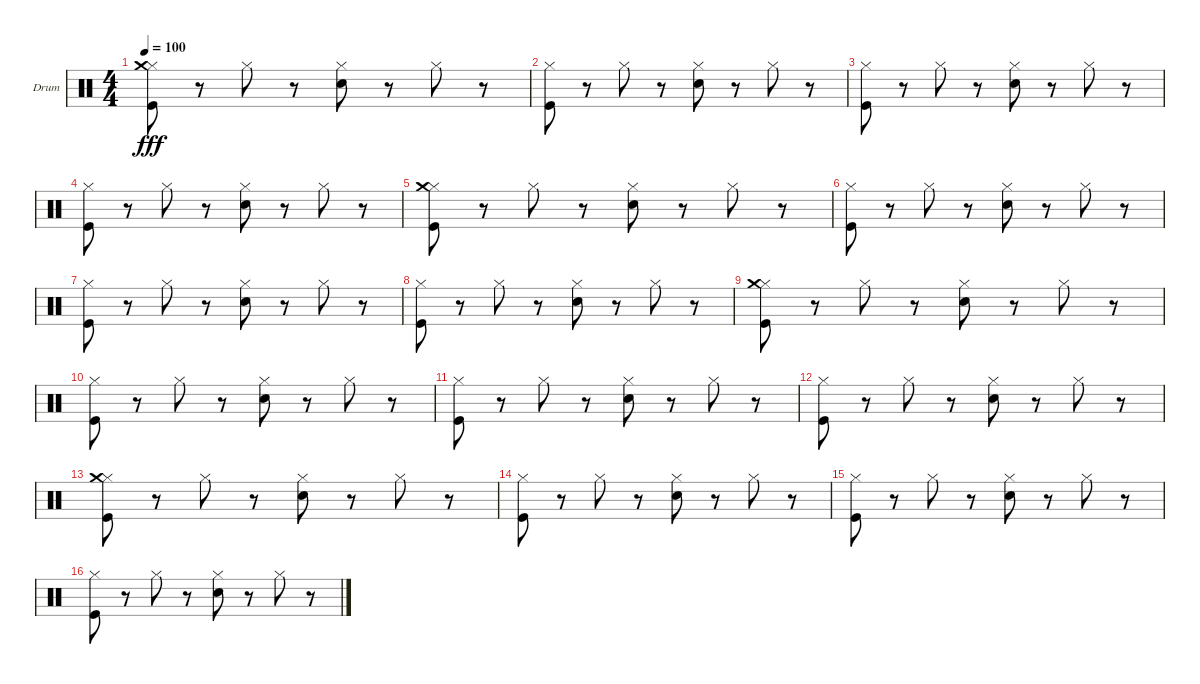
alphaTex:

\defaultSystemsLayout 4
\bracketExtendMode groupsimilarinstruments
\firstSystemTrackNameOrientation horizontal
\otherSystemsTrackNameOrientation horizontal
\track ("Drum" "Drum") {instrument percussion}
\staff {score}
\articulation defaults
\ts (4 4)
\tempo 100
\clef neutral
\scale
0.333333
\ks c
("Hi-Hat (closed)" "Crash medium (hit)" "Kick (hit)").8{dy fff} r.8 "Hi-Hat (closed)".8 r.8 ("Hi-Hat (closed)" "Snare (hit) 2").8 r.8 "Hi-Hat (closed)".8 r.8 |
\scale
0.333333 ("Hi-Hat (closed)" "Kick (hit)").8 r.8 "Hi-Hat (closed)".8 r.8 ("Hi-Hat (closed)" "Snare (hit) 2").8 r.8 "Hi-Hat (closed)".8 r.8 |
\scale
0.333333 ("Hi-Hat (closed)" "Kick (hit)").8 r.8 "Hi-Hat (closed)".8 r.8 ("Hi-Hat (closed)" "Snare (hit) 2").8 r.8 "Hi-Hat (closed)".8 r.8 |
\scale
0.333333 ("Hi-Hat (closed)" "Kick (hit)").8 r.8 "Hi-Hat (closed)".8 r.8 ("Hi-Hat (closed)" "Snare (hit) 2").8 r.8 "Hi-Hat (closed)".8 r.8 |
\scale
0.333333 ("Hi-Hat (closed)" "Crash medium (hit)" "Kick (hit)").8 r.8 "Hi-Hat (closed)".8 r.8 ("Hi-Hat (closed)" "Snare (hit) 2").8 r.8 "Hi-Hat (closed)".8 r.8 |
\scale
0.333333 ("Hi-Hat (closed)" "Kick (hit)").8 r.8 "Hi-Hat (closed)".8 r.8 ("Hi-Hat (closed)" "Snare (hit) 2").8 r.8 "Hi-Hat (closed)".8 r.8 |
\scale
0.333333 ("Hi-Hat (closed)" "Kick (hit)").8 r.8 "Hi-Hat (closed)".8 r.8 ("Hi-Hat (closed)" "Snare (hit) 2").8 r.8 "Hi-Hat (closed)".8 r.8 |
\scale
0.333333 ("Hi-Hat (closed)" "Kick (hit)").8 r.8 "Hi-Hat (closed)".8 r.8 ("Hi-Hat (closed)" "Snare (hit) 2").8 r.8 "Hi-Hat (closed)".8 r.8 |
\scale
0.333333 ("Hi-Hat (closed)" "Crash medium (hit)" "Kick (hit)").8 r.8 "Hi-Hat (closed)".8 r.8 ("Hi-Hat (closed)" "Snare (hit) 2").8 r.8 "Hi-Hat (closed)".8 r.8 |
\scale
0.333333 ("Hi-Hat (closed)" "Kick (hit)").8 r.8 "Hi-Hat (closed)".8 r.8 ("Hi-Hat (closed)" "Snare (hit) 2").8 r.8 "Hi-Hat (closed)".8 r.8 |
\scale
0.333333 ("Hi-Hat (closed)" "Kick (hit)").8 r.8 "Hi-Hat (closed)".8 r.8 ("Hi-Hat (closed)" "Snare (hit) 2").8 r.8 "Hi-Hat (closed)".8 r.8 |
\scale
0.333333 ("Hi-Hat (closed)" "Kick (hit)").8 r.8 "Hi-Hat (closed)".8 r.8 ("Hi-Hat (closed)" "Snare (hit) 2").8 r.8 "Hi-Hat (closed)".8 r.8 |
\scale
0.333333 ("Hi-Hat (closed)" "Crash medium (hit)" "Kick (hit)").8 r.8 "Hi-Hat (closed)".8 r.8 ("Hi-Hat (closed)" "Snare (hit) 2").8 r.8 "Hi-Hat (closed)".8 r.8 |
\scale
0.333333 ("Hi-Hat (closed)" "Kick (hit)").8 r.8 "Hi-Hat (closed)".8 r.8 ("Hi-Hat (closed)" "Snare (hit) 2").8 r.8 "Hi-Hat (closed)".8 r.8 |
\scale
0.333333 ("Hi-Hat (closed)" "Kick (hit)").8 r.8 "Hi-Hat (closed)".8 r.8 ("Hi-Hat (closed)" "Snare (hit) 2").8 r.8 "Hi-Hat (closed)".8 r.8 |
\scale
0.333333 ("Hi-Hat (closed)" "Kick (hit)").8 r.8 "Hi-Hat (closed)".8 r.8 ("Hi-Hat (closed)" "Snare (hit) 2").8 r.8 "Hi-Hat (closed)".8 r.8
